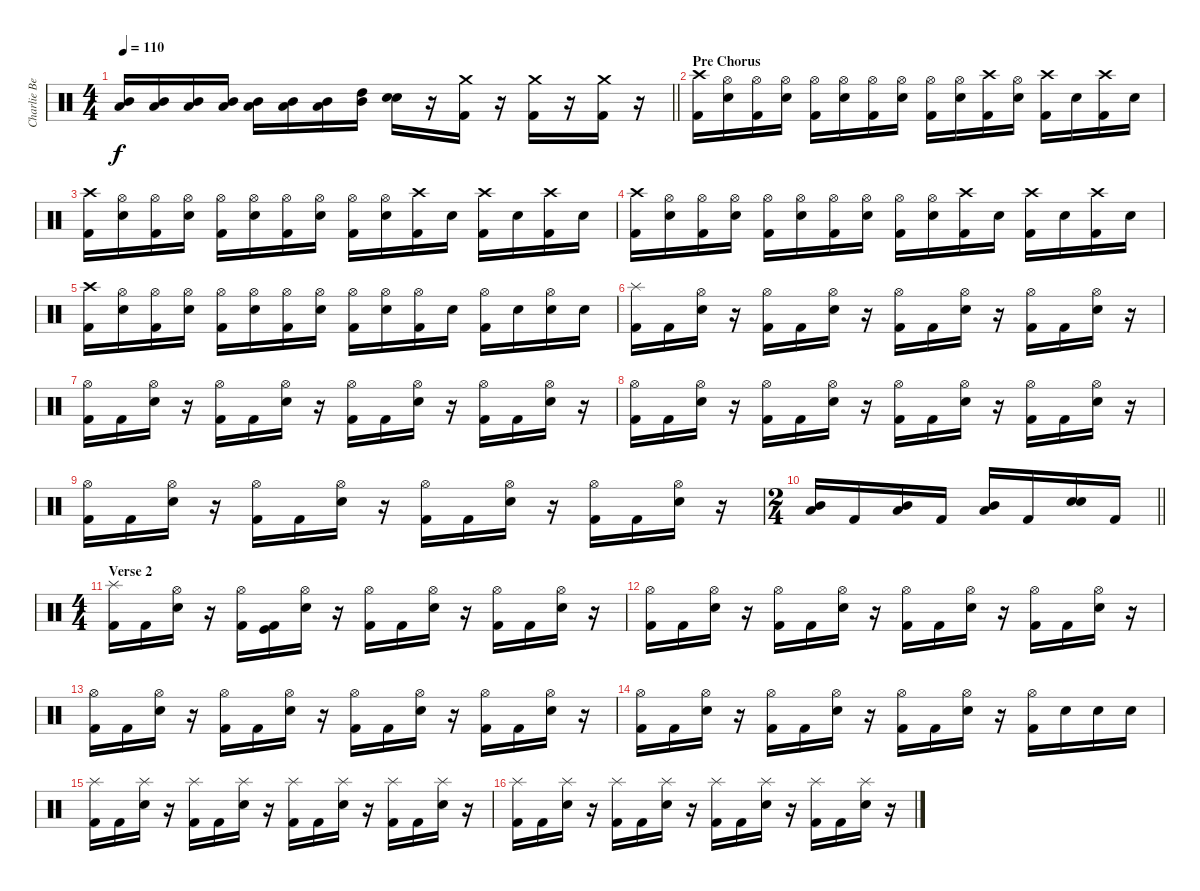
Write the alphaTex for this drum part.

\track ("Charlie Benante" "Charlie Be") {instrument percussion}
\staff {score}
\articulation defaults
\ts (4 4)
\tempo 110
\clef neutral
\barLineRight lightlight
\ks c
("Low Tom (hit)" "Mid Tom (hit)").16{dy f} ("Low Tom (hit)" "Mid Tom (hit)").16 ("Low Tom (hit)" "Mid Tom (hit)").16 ("Low Tom (hit)" "Mid Tom (hit)").16 ("Low Tom (hit)" "Mid Tom (hit)").16 ("Low Tom (hit)" "Mid Tom (hit)").16 ("Low Tom (hit)" "Mid Tom (hit)").16 ("Mid Tom (hit)" "High Tom (hit)").16 ("Electric Snare (hit)" "Snare (hit) 2").16 r.16 ("Crash medium (hit)" "Kick (hit) 2").16 r.16 ("Crash medium (hit)" "Kick (hit) 2").16 r.16 ("Crash medium (hit)" "Kick (hit) 2").16 r.16 |
\section ("" "Pre Chorus")
("Crash high (hit)" "Kick (hit) 2").16 ("Hi-Hat (open)" "Electric Snare (hit)").16 ("Hi-Hat (open)" "Kick (hit) 2").16 ("Hi-Hat (open)" "Electric Snare (hit)").16 ("Hi-Hat (open)" "Kick (hit) 2").16 ("Hi-Hat (open)" "Electric Snare (hit)").16 ("Hi-Hat (open)" "Kick (hit) 2").16 ("Hi-Hat (open)" "Electric Snare (hit)").16 ("Hi-Hat (open)" "Kick (hit) 2").16 ("Hi-Hat (open)" "Electric Snare (hit)").16 ("Crash high (hit)" "Kick (hit) 2").16 ("Hi-Hat (open)" "Electric Snare (hit)").16 ("Crash high (hit)" "Kick (hit) 2").16 "Electric Snare (hit)".16 ("Crash high (hit)" "Kick (hit) 2").16 "Electric Snare (hit)".16 |
("Crash high (hit)" "Kick (hit) 2").16 ("Hi-Hat (open)" "Electric Snare (hit)").16 ("Hi-Hat (open)" "Kick (hit) 2").16 ("Hi-Hat (open)" "Electric Snare (hit)").16 ("Hi-Hat (open)" "Kick (hit) 2").16 ("Hi-Hat (open)" "Electric Snare (hit)").16 ("Hi-Hat (open)" "Kick (hit) 2").16 ("Hi-Hat (open)" "Electric Snare (hit)").16 ("Hi-Hat (open)" "Kick (hit) 2").16 ("Hi-Hat (open)" "Electric Snare (hit)").16 ("Crash high (hit)" "Kick (hit) 2").16 "Electric Snare (hit)".16 ("Crash high (hit)" "Kick (hit) 2").16 "Electric Snare (hit)".16 ("Crash high (hit)" "Kick (hit) 2").16 "Electric Snare (hit)".16 |
("Crash high (hit)" "Kick (hit) 2").16 ("Hi-Hat (open)" "Electric Snare (hit)").16 ("Hi-Hat (open)" "Kick (hit) 2").16 ("Hi-Hat (open)" "Electric Snare (hit)").16 ("Hi-Hat (open)" "Kick (hit) 2").16 ("Hi-Hat (open)" "Electric Snare (hit)").16 ("Hi-Hat (open)" "Kick (hit) 2").16 ("Hi-Hat (open)" "Electric Snare (hit)").16 ("Hi-Hat (open)" "Kick (hit) 2").16 ("Hi-Hat (open)" "Electric Snare (hit)").16 ("Crash high (hit)" "Kick (hit) 2").16 "Electric Snare (hit)".16 ("Crash high (hit)" "Kick (hit) 2").16 "Electric Snare (hit)".16 ("Crash high (hit)" "Kick (hit) 2").16 "Electric Snare (hit)".16 |
("Crash high (hit)" "Kick (hit) 2").16 ("Hi-Hat (open)" "Electric Snare (hit)").16 ("Hi-Hat (open)" "Kick (hit) 2").16 ("Hi-Hat (open)" "Electric Snare (hit)").16 ("Hi-Hat (open)" "Kick (hit) 2").16 ("Hi-Hat (open)" "Electric Snare (hit)").16 ("Hi-Hat (open)" "Kick (hit) 2").16 ("Hi-Hat (open)" "Electric Snare (hit)").16 ("Hi-Hat (open)" "Kick (hit) 2").16 ("Hi-Hat (open)" "Electric Snare (hit)").16 ("Hi-Hat (open)" "Kick (hit) 2").16 "Electric Snare (hit)".16 ("Hi-Hat (open)" "Kick (hit) 2").16 "Electric Snare (hit)".16 ("Hi-Hat (open)" "Electric Snare (hit)").16 "Electric Snare (hit)".16 |
("Splash (hit)" "Kick (hit) 2").16 "Kick (hit) 2".16 ("Hi-Hat (open)" "Electric Snare (hit)").16 r.16 ("Hi-Hat (open)" "Kick (hit) 2").16 "Kick (hit) 2".16 ("Hi-Hat (open)" "Electric Snare (hit)").16 r.16 ("Hi-Hat (open)" "Kick (hit) 2").16 "Kick (hit) 2".16 ("Hi-Hat (open)" "Electric Snare (hit)").16 r.16 ("Hi-Hat (open)" "Kick (hit) 2").16 "Kick (hit) 2".16 ("Hi-Hat (open)" "Electric Snare (hit)").16 r.16 |
("Hi-Hat (open)" "Kick (hit) 2").16 "Kick (hit) 2".16 ("Hi-Hat (open)" "Electric Snare (hit)").16 r.16 ("Hi-Hat (open)" "Kick (hit) 2").16 "Kick (hit) 2".16 ("Hi-Hat (open)" "Electric Snare (hit)").16 r.16 ("Hi-Hat (open)" "Kick (hit) 2").16 "Kick (hit) 2".16 ("Hi-Hat (open)" "Electric Snare (hit)").16 r.16 ("Hi-Hat (open)" "Kick (hit) 2").16 "Kick (hit) 2".16 ("Hi-Hat (open)" "Electric Snare (hit)").16 r.16 |
("Hi-Hat (open)" "Kick (hit) 2").16 "Kick (hit) 2".16 ("Hi-Hat (open)" "Electric Snare (hit)").16 r.16 ("Hi-Hat (open)" "Kick (hit) 2").16 "Kick (hit) 2".16 ("Hi-Hat (open)" "Electric Snare (hit)").16 r.16 ("Hi-Hat (open)" "Kick (hit) 2").16 "Kick (hit) 2".16 ("Hi-Hat (open)" "Electric Snare (hit)").16 r.16 ("Hi-Hat (open)" "Kick (hit) 2").16 "Kick (hit) 2".16 ("Hi-Hat (open)" "Electric Snare (hit)").16 r.16 |
("Hi-Hat (open)" "Kick (hit) 2").16 "Kick (hit) 2".16 ("Hi-Hat (open)" "Electric Snare (hit)").16 r.16 ("Hi-Hat (open)" "Kick (hit) 2").16 "Kick (hit) 2".16 ("Hi-Hat (open)" "Electric Snare (hit)").16 r.16 ("Hi-Hat (open)" "Kick (hit) 2").16 "Kick (hit) 2".16 ("Hi-Hat (open)" "Electric Snare (hit)").16 r.16 ("Hi-Hat (open)" "Kick (hit) 2").16 "Kick (hit) 2".16 ("Hi-Hat (open)" "Electric Snare (hit)").16 r.16 |
\ts (2 4)
\barLineRight lightlight
("Low Tom (hit)" "Mid Tom (hit)").16 "Kick (hit) 2".16 ("Low Tom (hit)" "Mid Tom (hit)").16 "Kick (hit) 2".16 ("Low Tom (hit)" "Mid Tom (hit)").16 "Kick (hit) 2".16 ("Snare (hit) 2" "Electric Snare (hit)").16 "Kick (hit) 2".16 |
\ts (4 4)
\section ("" "Verse 2")
("Splash (hit)" "Kick (hit) 2").16 "Kick (hit) 2".16 ("Hi-Hat (open)" "Electric Snare (hit)").16 r.16 ("Hi-Hat (open)" "Kick (hit) 2").16 ("Kick (hit)" "Kick (hit) 2").16 ("Hi-Hat (open)" "Electric Snare (hit)").16 r.16 ("Hi-Hat (open)" "Kick (hit) 2").16 "Kick (hit) 2".16 ("Hi-Hat (open)" "Electric Snare (hit)").16 r.16 ("Hi-Hat (open)" "Kick (hit) 2").16 "Kick (hit) 2".16 ("Hi-Hat (open)" "Electric Snare (hit)").16 r.16 |
("Hi-Hat (open)" "Kick (hit) 2").16 "Kick (hit) 2".16 ("Hi-Hat (open)" "Electric Snare (hit)").16 r.16 ("Hi-Hat (open)" "Kick (hit) 2").16 "Kick (hit) 2".16 ("Hi-Hat (open)" "Electric Snare (hit)").16 r.16 ("Hi-Hat (open)" "Kick (hit) 2").16 "Kick (hit) 2".16 ("Hi-Hat (open)" "Electric Snare (hit)").16 r.16 ("Hi-Hat (open)" "Kick (hit) 2").16 "Kick (hit) 2".16 ("Hi-Hat (open)" "Electric Snare (hit)").16 r.16 |
("Hi-Hat (open)" "Kick (hit) 2").16 "Kick (hit) 2".16 ("Hi-Hat (open)" "Electric Snare (hit)").16 r.16 ("Hi-Hat (open)" "Kick (hit) 2").16 "Kick (hit) 2".16 ("Hi-Hat (open)" "Electric Snare (hit)").16 r.16 ("Hi-Hat (open)" "Kick (hit) 2").16 "Kick (hit) 2".16 ("Hi-Hat (open)" "Electric Snare (hit)").16 r.16 ("Hi-Hat (open)" "Kick (hit) 2").16 "Kick (hit) 2".16 ("Hi-Hat (open)" "Electric Snare (hit)").16 r.16 |
("Hi-Hat (open)" "Kick (hit) 2").16 "Kick (hit) 2".16 ("Hi-Hat (open)" "Electric Snare (hit)").16 r.16 ("Hi-Hat (open)" "Kick (hit) 2").16 "Kick (hit) 2".16 ("Hi-Hat (open)" "Electric Snare (hit)").16 r.16 ("Hi-Hat (open)" "Kick (hit) 2").16 "Kick (hit) 2".16 ("Hi-Hat (open)" "Electric Snare (hit)").16 r.16 ("Hi-Hat (open)" "Kick (hit) 2").16 "Electric Snare (hit)".16 "Snare (hit) 2".16 "Electric Snare (hit)".16 |
("Splash (hit)" "Kick (hit) 2").16 "Kick (hit) 2".16 ("Splash (hit)" "Electric Snare (hit)").16 r.16 ("Splash (hit)" "Kick (hit) 2").16 "Kick (hit) 2".16 ("Splash (hit)" "Electric Snare (hit)").16 r.16 ("Splash (hit)" "Kick (hit) 2").16 "Kick (hit) 2".16 ("Splash (hit)" "Electric Snare (hit)").16 r.16 ("Splash (hit)" "Kick (hit) 2").16 "Kick (hit) 2".16 ("Splash (hit)" "Electric Snare (hit)").16 r.16 |
("Splash (hit)" "Kick (hit) 2").16 "Kick (hit) 2".16 ("Splash (hit)" "Electric Snare (hit)").16 r.16 ("Splash (hit)" "Kick (hit) 2").16 "Kick (hit) 2".16 ("Splash (hit)" "Electric Snare (hit)").16 r.16 ("Splash (hit)" "Kick (hit) 2").16 "Kick (hit) 2".16 ("Splash (hit)" "Electric Snare (hit)").16 r.16 ("Splash (hit)" "Kick (hit) 2").16 "Kick (hit) 2".16 ("Splash (hit)" "Electric Snare (hit)").16 r.16
